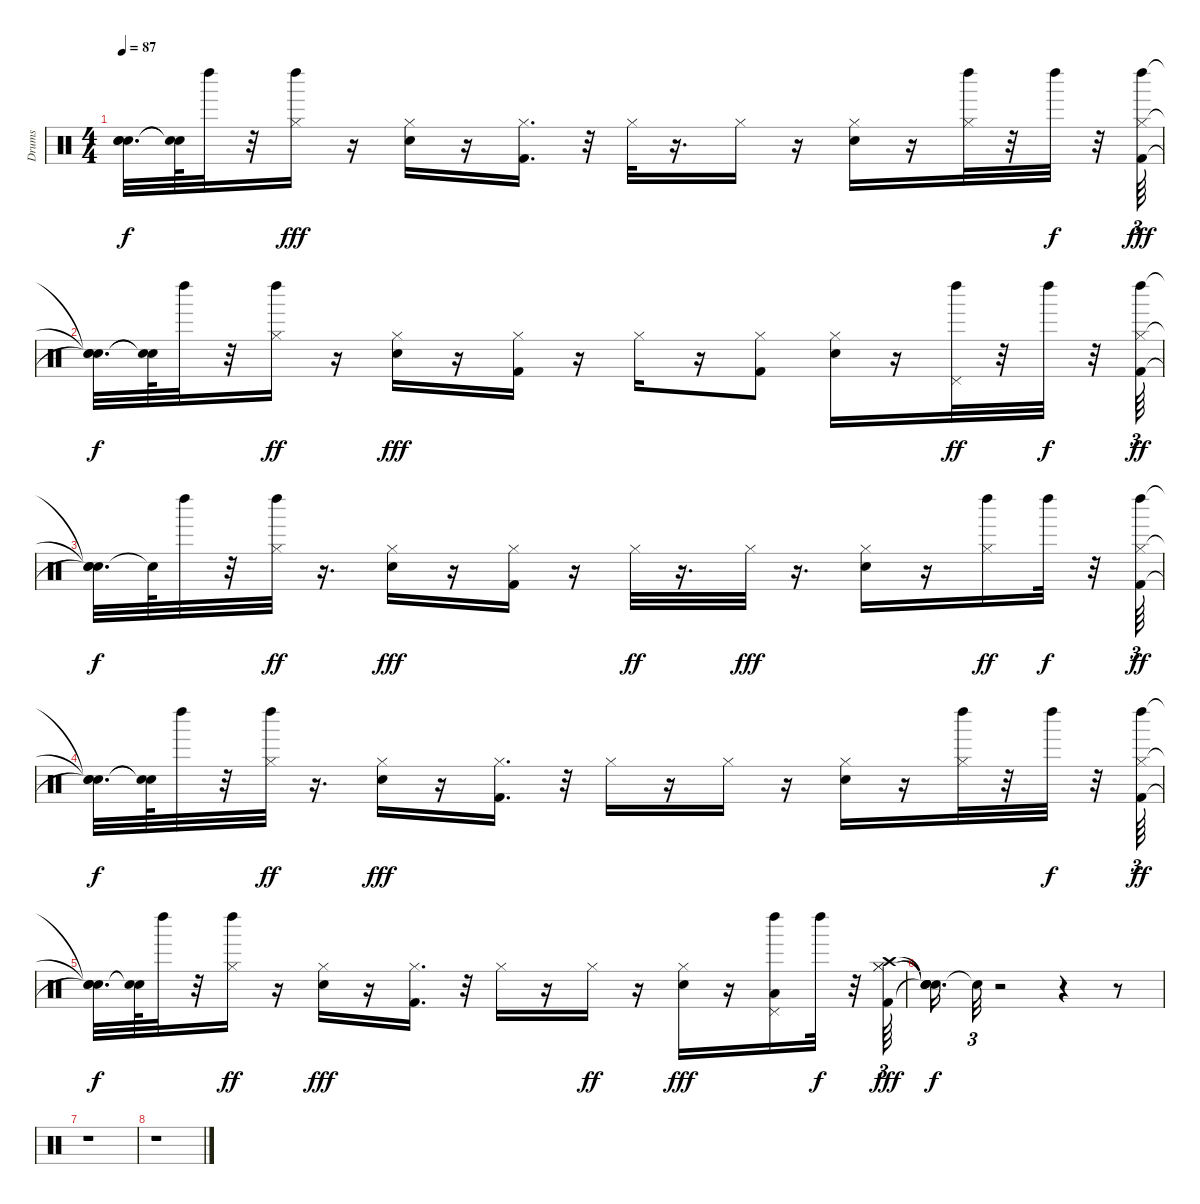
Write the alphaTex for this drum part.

\track ("Drums   " "Drums   ") {instrument percussion}
\staff {score}
\articulation defaults
\ts (4 4)
\tempo 87
\clef neutral
\ks c
("Snare (hit)"{t} "Snare (hit)"{t} "Snare (hit)"{t}).32{d dy f} ("Snare (hit)"{t} "Snare (hit)"{t}).64 "Left Maraca (hit)".32 r.32 ("Hi-Hat (closed)" "Left Maraca (hit)").16{dy fff} r.16 ("Hi-Hat (closed)" "Snare (hit) 2").16 r.16 ("Kick (hit) 2" "Hi-Hat (closed)").16{d} r.32 "Hi-Hat (closed)".32 r.16{d} "Hi-Hat (closed)".16 r.16 ("Hi-Hat (closed)" "Snare (hit) 2").16 r.16 ("Hi-Hat (closed)" "Left Maraca (hit)").32 r.32 "Left Maraca (hit)".32{dy f} r.32 ("Kick (hit) 2" "Hi-Hat (closed)" "Left Maraca (hit)").64{tu (3 2) dy fff} |
("Snare (hit)"{t} "Snare (hit)"{t} "Snare (hit)"{t}).32{d dy f} ("Snare (hit)"{t} "Snare (hit)"{t}).64 "Left Maraca (hit)".32 r.32 ("Hi-Hat (closed)" "Left Maraca (hit)").16{dy ff} r.16 ("Hi-Hat (closed)" "Snare (hit) 2").16{dy fff} r.16 ("Kick (hit) 2" "Hi-Hat (closed)").16 r.16 "Hi-Hat (closed)".16 r.16 ("Kick (hit) 2" "Hi-Hat (closed)").8 ("Hi-Hat (closed)" "Snare (hit) 2").16 r.16 ("Pedal Hi-Hat (hit)" "Left Maraca (hit)").32{dy ff} r.32 "Left Maraca (hit)".32{dy f} r.32 ("Kick (hit) 2" "Hi-Hat (closed)" "Left Maraca (hit)").64{tu (3 2) dy ff} |
("Snare (hit)"{t} "Snare (hit)"{t} "Snare (hit)"{t}).32{d dy f} "Snare (hit)"{t}.64 "Left Maraca (hit)".32 r.32 ("Hi-Hat (closed)" "Left Maraca (hit)").32{dy ff} r.16{d} ("Hi-Hat (closed)" "Snare (hit) 2").16{dy fff} r.16 ("Kick (hit) 2" "Hi-Hat (closed)").16 r.16 "Hi-Hat (closed)".32{dy ff} r.16{d} "Hi-Hat (closed)".32{dy fff} r.16{d} ("Hi-Hat (closed)" "Snare (hit) 2").16 r.16 ("Hi-Hat (closed)" "Left Maraca (hit)").16{dy ff} "Left Maraca (hit)".32{dy f} r.32 ("Kick (hit) 2" "Hi-Hat (closed)" "Left Maraca (hit)").64{tu (3 2) dy ff} |
("Snare (hit)"{t} "Snare (hit)"{t} "Snare (hit)"{t}).32{d dy f} ("Snare (hit)"{t} "Snare (hit)"{t}).64 "Left Maraca (hit)".32 r.32 ("Hi-Hat (closed)" "Left Maraca (hit)").32{dy ff} r.16{d} ("Hi-Hat (closed)" "Snare (hit) 2").16{dy fff} r.16 ("Kick (hit) 2" "Hi-Hat (closed)").16{d} r.32 "Hi-Hat (closed)".16 r.16 "Hi-Hat (closed)".16 r.16 ("Hi-Hat (closed)" "Snare (hit) 2").16 r.16 ("Hi-Hat (closed)" "Left Maraca (hit)").32 r.32 "Left Maraca (hit)".32{dy f} r.32 ("Kick (hit) 2" "Hi-Hat (closed)" "Left Maraca (hit)").64{tu (3 2) dy ff} |
("Snare (hit)"{t} "Snare (hit)"{t} "Snare (hit)"{t}).32{d dy f} ("Snare (hit)"{t} "Snare (hit)"{t}).64 "Left Maraca (hit)".32 r.32 ("Hi-Hat (closed)" "Left Maraca (hit)").16{dy ff} r.16 ("Hi-Hat (closed)" "Snare (hit) 2").16{dy fff} r.16 ("Kick (hit) 2" "Hi-Hat (closed)").16{d} r.32 "Hi-Hat (closed)".16 r.16 "Hi-Hat (closed)".16{dy ff} r.16 ("Hi-Hat (closed)" "Snare (hit) 2").16{dy fff} r.16 ("Low Floor Tom (hit)" "Pedal Hi-Hat (hit)" "Left Maraca (hit)").16 "Left Maraca (hit)".32{dy f} r.32 ("Kick (hit) 2" "Hi-Hat (closed)" "Hi-Hat (closed)" "Crash high (hit)").64{tu (3 2) dy fff} |
("Snare (hit)"{t} "Snare (hit)"{t} "Snare (hit)"{t} "Snare (hit)"{t}).16{d dy f} "Snare (hit)"{t}.32{tu (3 2)} r.2 r.4 r.8 |
r.1 |
r.1
